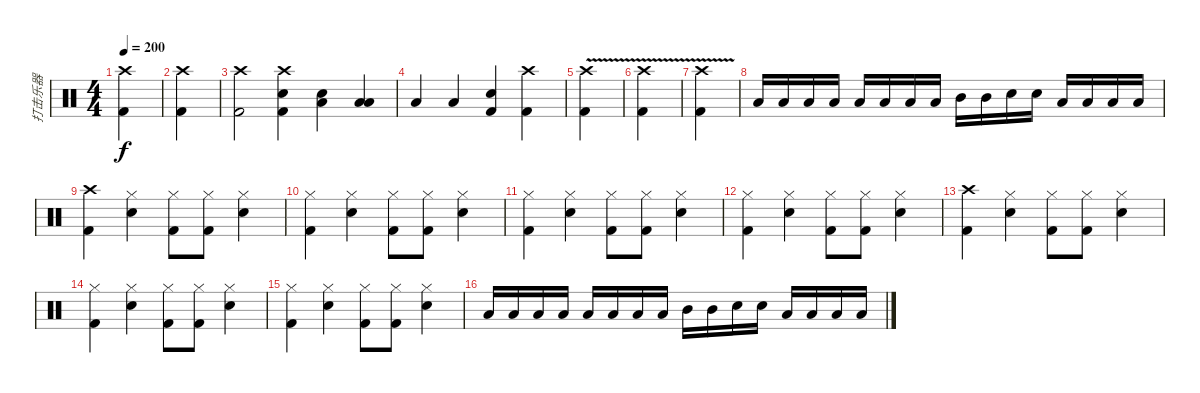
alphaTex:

\track ("打击乐器" "打击乐器") {instrument percussion}
\staff {score}
\articulation defaults
\ts (4 4)
\tempo 200
\clef neutral
\ks c
("Crash high (hit)" "Kick (hit) 2").4{dy f} |
("Crash high (hit)" "Kick (hit) 2").4 |
("Crash high (hit)" "Kick (hit) 2").2 ("Crash high (hit)" "Kick (hit) 2" "Snare (hit) 2").4 ("Low Floor Tom (hit)" "Snare (hit) 2").4 ("Low Tom (hit)" "Low Floor Tom (hit)").4 |
"Low Tom (hit)".4 "Low Floor Tom (hit)".4 ("Kick (hit) 2" "Snare (hit) 2").4 ("Kick (hit) 2" "Crash high (hit)").4 |
("Crash high (hit)"{v} "Kick (hit) 2").4 |
("Crash high (hit)"{v} "Kick (hit) 2").4 |
("Crash high (hit)"{v} "Kick (hit) 2").4 |
"Low Floor Tom (hit)".16 "Low Floor Tom (hit)".16 "Low Floor Tom (hit)".16 "Low Floor Tom (hit)".16 "Low Floor Tom (hit)".16 "Low Floor Tom (hit)".16 "Low Floor Tom (hit)".16 "Low Floor Tom (hit)".16 "Mid Tom (hit)".16 "Mid Tom (hit)".16 "Snare (hit) 2".16 "Snare (hit) 2".16 "Low Floor Tom (hit)".16 "Low Floor Tom (hit)".16 "Low Tom (hit)".16 "Low Tom (hit)".16 |
("Crash high (hit)" "Kick (hit) 2").4 ("Hi-Hat (closed)" "Snare (hit) 2").4 ("Hi-Hat (closed)" "Kick (hit) 2").8 ("Hi-Hat (closed)" "Kick (hit) 2").8 ("Hi-Hat (closed)" "Snare (hit) 2").4 |
("Hi-Hat (closed)" "Kick (hit) 2").4 ("Hi-Hat (closed)" "Snare (hit) 2").4 ("Hi-Hat (closed)" "Kick (hit) 2").8 ("Hi-Hat (closed)" "Kick (hit) 2").8 ("Hi-Hat (closed)" "Snare (hit) 2").4 |
("Hi-Hat (closed)" "Kick (hit) 2").4 ("Hi-Hat (closed)" "Snare (hit) 2").4 ("Hi-Hat (closed)" "Kick (hit) 2").8 ("Hi-Hat (closed)" "Kick (hit) 2").8 ("Hi-Hat (closed)" "Snare (hit) 2").4 |
("Hi-Hat (closed)" "Kick (hit) 2").4 ("Hi-Hat (closed)" "Snare (hit) 2").4 ("Hi-Hat (closed)" "Kick (hit) 2").8 ("Hi-Hat (closed)" "Kick (hit) 2").8 ("Hi-Hat (closed)" "Snare (hit) 2").4 |
("Crash high (hit)" "Kick (hit) 2").4 ("Hi-Hat (closed)" "Snare (hit) 2").4 ("Hi-Hat (closed)" "Kick (hit) 2").8 ("Hi-Hat (closed)" "Kick (hit) 2").8 ("Hi-Hat (closed)" "Snare (hit) 2").4 |
("Hi-Hat (closed)" "Kick (hit) 2").4 ("Hi-Hat (closed)" "Snare (hit) 2").4 ("Hi-Hat (closed)" "Kick (hit) 2").8 ("Hi-Hat (closed)" "Kick (hit) 2").8 ("Hi-Hat (closed)" "Snare (hit) 2").4 |
("Hi-Hat (closed)" "Kick (hit) 2").4 ("Hi-Hat (closed)" "Snare (hit) 2").4 ("Hi-Hat (closed)" "Kick (hit) 2").8 ("Hi-Hat (closed)" "Kick (hit) 2").8 ("Hi-Hat (closed)" "Snare (hit) 2").4 |
"Low Floor Tom (hit)".16 "Low Floor Tom (hit)".16 "Low Floor Tom (hit)".16 "Low Floor Tom (hit)".16 "Low Floor Tom (hit)".16 "Low Floor Tom (hit)".16 "Low Floor Tom (hit)".16 "Low Floor Tom (hit)".16 "Mid Tom (hit)".16 "Mid Tom (hit)".16 "Snare (hit) 2".16 "Snare (hit) 2".16 "Low Floor Tom (hit)".16 "Low Floor Tom (hit)".16 "Low Tom (hit)".16 "Low Tom (hit)".16
